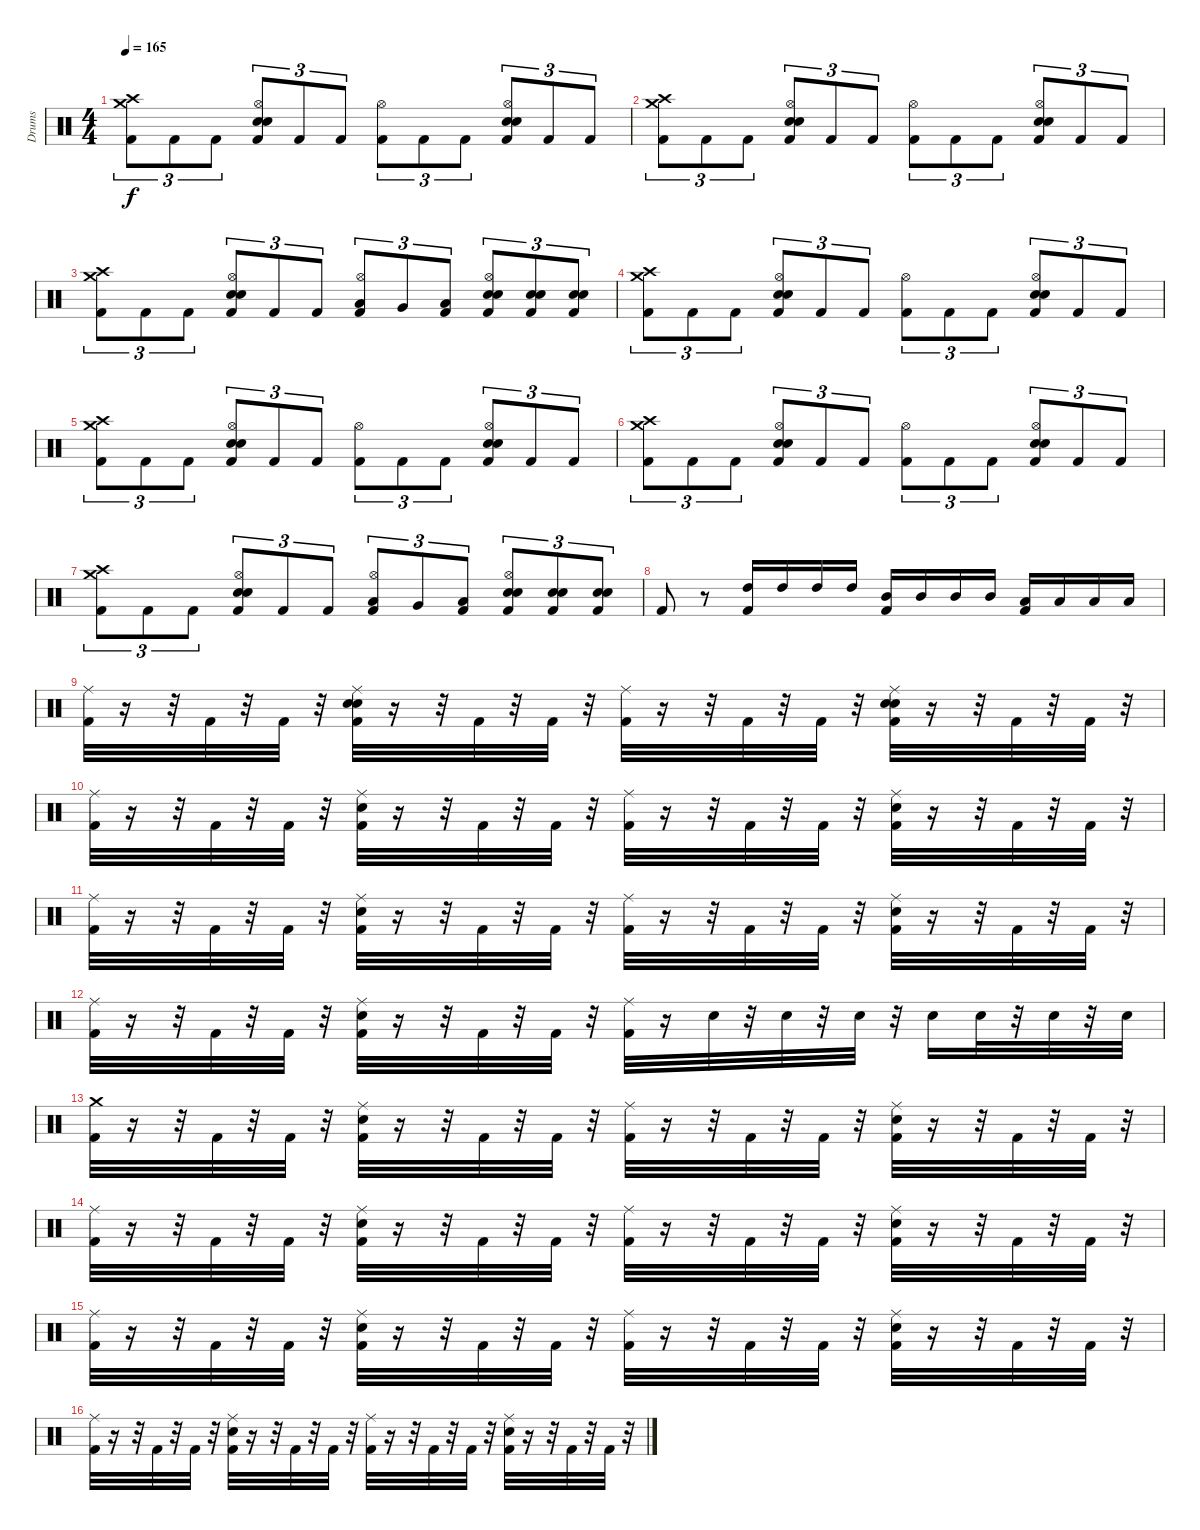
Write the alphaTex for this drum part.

\track ("Drums" "Drums") {instrument percussion}
\staff {score}
\articulation defaults
\ts (4 4)
\tempo 165
\clef neutral
\ks c
("Crash high (hit)" "Crash medium (hit)" "Kick (hit) 2").8{tu (3 2) dy f} "Kick (hit) 2".8{tu (3 2)} "Kick (hit) 2".8{tu (3 2)} ("Hi-Hat (open)" "Electric Snare (hit)" "Snare (hit) 2" "Kick (hit) 2").8{tu (3 2)} "Kick (hit) 2".8{tu (3 2)} "Kick (hit) 2".8{tu (3 2)} ("Hi-Hat (open)" "Kick (hit) 2").8{tu (3 2)} "Kick (hit) 2".8{tu (3 2)} "Kick (hit) 2".8{tu (3 2)} ("Hi-Hat (open)" "Electric Snare (hit)" "Snare (hit) 2" "Kick (hit) 2").8{tu (3 2)} "Kick (hit) 2".8{tu (3 2)} "Kick (hit) 2".8{tu (3 2)} |
("Crash high (hit)" "Crash medium (hit)" "Kick (hit) 2").8{tu (3 2)} "Kick (hit) 2".8{tu (3 2)} "Kick (hit) 2".8{tu (3 2)} ("Hi-Hat (open)" "Electric Snare (hit)" "Snare (hit) 2" "Kick (hit) 2").8{tu (3 2)} "Kick (hit) 2".8{tu (3 2)} "Kick (hit) 2".8{tu (3 2)} ("Hi-Hat (open)" "Kick (hit) 2").8{tu (3 2)} "Kick (hit) 2".8{tu (3 2)} "Kick (hit) 2".8{tu (3 2)} ("Hi-Hat (open)" "Electric Snare (hit)" "Snare (hit) 2" "Kick (hit) 2").8{tu (3 2)} "Kick (hit) 2".8{tu (3 2)} "Kick (hit) 2".8{tu (3 2)} |
("Crash high (hit)" "Crash medium (hit)" "Kick (hit) 2").8{tu (3 2)} "Kick (hit) 2".8{tu (3 2)} "Kick (hit) 2".8{tu (3 2)} ("Hi-Hat (open)" "Electric Snare (hit)" "Snare (hit) 2" "Kick (hit) 2").8{tu (3 2)} "Kick (hit) 2".8{tu (3 2)} "Kick (hit) 2".8{tu (3 2)} ("Hi-Hat (open)" "Low Tom (hit)" "Kick (hit) 2").8{tu (3 2)} "Very Low Tom (hit)".8{tu (3 2)} ("Low Floor Tom (hit)" "Kick (hit) 2").8{tu (3 2)} ("Hi-Hat (open)" "Electric Snare (hit)" "Snare (hit) 2" "Kick (hit) 2").8{tu (3 2)} ("Electric Snare (hit)" "Snare (hit) 2" "Kick (hit) 2").8{tu (3 2)} ("Electric Snare (hit)" "Snare (hit) 2" "Kick (hit) 2").8{tu (3 2)} |
("Crash high (hit)" "Crash medium (hit)" "Kick (hit) 2").8{tu (3 2)} "Kick (hit) 2".8{tu (3 2)} "Kick (hit) 2".8{tu (3 2)} ("Hi-Hat (open)" "Electric Snare (hit)" "Snare (hit) 2" "Kick (hit) 2").8{tu (3 2)} "Kick (hit) 2".8{tu (3 2)} "Kick (hit) 2".8{tu (3 2)} ("Hi-Hat (open)" "Kick (hit) 2").8{tu (3 2)} "Kick (hit) 2".8{tu (3 2)} "Kick (hit) 2".8{tu (3 2)} ("Hi-Hat (open)" "Electric Snare (hit)" "Snare (hit) 2" "Kick (hit) 2").8{tu (3 2)} "Kick (hit) 2".8{tu (3 2)} "Kick (hit) 2".8{tu (3 2)} |
("Crash high (hit)" "Crash medium (hit)" "Kick (hit) 2").8{tu (3 2)} "Kick (hit) 2".8{tu (3 2)} "Kick (hit) 2".8{tu (3 2)} ("Hi-Hat (open)" "Electric Snare (hit)" "Snare (hit) 2" "Kick (hit) 2").8{tu (3 2)} "Kick (hit) 2".8{tu (3 2)} "Kick (hit) 2".8{tu (3 2)} ("Hi-Hat (open)" "Kick (hit) 2").8{tu (3 2)} "Kick (hit) 2".8{tu (3 2)} "Kick (hit) 2".8{tu (3 2)} ("Hi-Hat (open)" "Electric Snare (hit)" "Snare (hit) 2" "Kick (hit) 2").8{tu (3 2)} "Kick (hit) 2".8{tu (3 2)} "Kick (hit) 2".8{tu (3 2)} |
("Crash high (hit)" "Crash medium (hit)" "Kick (hit) 2").8{tu (3 2)} "Kick (hit) 2".8{tu (3 2)} "Kick (hit) 2".8{tu (3 2)} ("Hi-Hat (open)" "Electric Snare (hit)" "Snare (hit) 2" "Kick (hit) 2").8{tu (3 2)} "Kick (hit) 2".8{tu (3 2)} "Kick (hit) 2".8{tu (3 2)} ("Hi-Hat (open)" "Kick (hit) 2").8{tu (3 2)} "Kick (hit) 2".8{tu (3 2)} "Kick (hit) 2".8{tu (3 2)} ("Hi-Hat (open)" "Electric Snare (hit)" "Snare (hit) 2" "Kick (hit) 2").8{tu (3 2)} "Kick (hit) 2".8{tu (3 2)} "Kick (hit) 2".8{tu (3 2)} |
("Crash high (hit)" "Crash medium (hit)" "Kick (hit) 2").8{tu (3 2)} "Kick (hit) 2".8{tu (3 2)} "Kick (hit) 2".8{tu (3 2)} ("Hi-Hat (open)" "Electric Snare (hit)" "Snare (hit) 2" "Kick (hit) 2").8{tu (3 2)} "Kick (hit) 2".8{tu (3 2)} "Kick (hit) 2".8{tu (3 2)} ("Hi-Hat (open)" "Low Tom (hit)" "Kick (hit) 2").8{tu (3 2)} "Very Low Tom (hit)".8{tu (3 2)} ("Low Floor Tom (hit)" "Kick (hit) 2").8{tu (3 2)} ("Hi-Hat (open)" "Electric Snare (hit)" "Snare (hit) 2" "Kick (hit) 2").8{tu (3 2)} ("Electric Snare (hit)" "Snare (hit) 2" "Kick (hit) 2").8{tu (3 2)} ("Electric Snare (hit)" "Snare (hit) 2" "Kick (hit) 2").8{tu (3 2)} |
"Kick (hit) 2".8 r.8 ("High Tom (hit)" "Kick (hit) 2").16 "High Tom (hit)".16 "High Tom (hit)".16 "High Tom (hit)".16 ("Mid Tom (hit)" "Kick (hit) 2").16 "Mid Tom (hit)".16 "Mid Tom (hit)".16 "Mid Tom (hit)".16 ("Low Tom (hit)" "Kick (hit) 2").16 "Low Tom (hit)".16 "Low Tom (hit)".16 "Low Tom (hit)".16 |
("Kick (hit) 2" "Ride (middle)").32 r.16 r.32 "Kick (hit) 2".32 r.32 "Kick (hit) 2".32 r.32 ("Ride (middle)" "Snare (hit) 2" "Electric Snare (hit)" "Kick (hit) 2").32 r.16 r.32 "Kick (hit) 2".32 r.32 "Kick (hit) 2".32 r.32 ("Kick (hit) 2" "Ride (middle)").32 r.16 r.32 "Kick (hit) 2".32 r.32 "Kick (hit) 2".32 r.32 ("Ride (middle)" "Snare (hit) 2" "Electric Snare (hit)" "Kick (hit) 2").32 r.16 r.32 "Kick (hit) 2".32 r.32 "Kick (hit) 2".32 r.32 |
("Ride (middle)" "Kick (hit) 2").32 r.16 r.32 "Kick (hit) 2".32 r.32 "Kick (hit) 2".32 r.32 ("Ride (middle)" "Snare (hit) 2" "Kick (hit) 2").32 r.16 r.32 "Kick (hit) 2".32 r.32 "Kick (hit) 2".32 r.32 ("Ride (middle)" "Kick (hit) 2").32 r.16 r.32 "Kick (hit) 2".32 r.32 "Kick (hit) 2".32 r.32 ("Ride (middle)" "Snare (hit) 2" "Kick (hit) 2").32 r.16 r.32 "Kick (hit) 2".32 r.32 "Kick (hit) 2".32 r.32 |
("Kick (hit) 2" "Ride (middle)").32 r.16 r.32 "Kick (hit) 2".32 r.32 "Kick (hit) 2".32 r.32 ("Ride (middle)" "Snare (hit) 2" "Kick (hit) 2").32 r.16 r.32 "Kick (hit) 2".32 r.32 "Kick (hit) 2".32 r.32 ("Kick (hit) 2" "Ride (middle)").32 r.16 r.32 "Kick (hit) 2".32 r.32 "Kick (hit) 2".32 r.32 ("Snare (hit) 2" "Ride (middle)" "Kick (hit) 2").32 r.16 r.32 "Kick (hit) 2".32 r.32 "Kick (hit) 2".32 r.32 |
("Ride (middle)" "Kick (hit) 2").32 r.16 r.32 "Kick (hit) 2".32 r.32 "Kick (hit) 2".32 r.32 ("Ride (middle)" "Snare (hit) 2" "Kick (hit) 2").32 r.16 r.32 "Kick (hit) 2".32 r.32 "Kick (hit) 2".32 r.32 ("Ride (middle)" "Kick (hit) 2").32 r.16 "Snare (hit) 2".32 r.32 "Snare (hit) 2".32 r.32 "Snare (hit) 2".32 r.32 "Snare (hit) 2".16 "Snare (hit) 2".32 r.32 "Snare (hit) 2".32 r.32 "Snare (hit) 2".32 |
("Crash medium (hit)" "Kick (hit) 2").32 r.16 r.32 "Kick (hit) 2".32 r.32 "Kick (hit) 2".32 r.32 ("Ride (middle)" "Snare (hit) 2" "Kick (hit) 2").32 r.16 r.32 "Kick (hit) 2".32 r.32 "Kick (hit) 2".32 r.32 ("Ride (middle)" "Kick (hit) 2").32 r.16 r.32 "Kick (hit) 2".32 r.32 "Kick (hit) 2".32 r.32 ("Ride (middle)" "Snare (hit) 2" "Kick (hit) 2").32 r.16 r.32 "Kick (hit) 2".32 r.32 "Kick (hit) 2".32 r.32 |
("Ride (middle)" "Kick (hit) 2").32 r.16 r.32 "Kick (hit) 2".32 r.32 "Kick (hit) 2".32 r.32 ("Ride (middle)" "Snare (hit) 2" "Kick (hit) 2").32 r.16 r.32 "Kick (hit) 2".32 r.32 "Kick (hit) 2".32 r.32 ("Ride (middle)" "Kick (hit) 2").32 r.16 r.32 "Kick (hit) 2".32 r.32 "Kick (hit) 2".32 r.32 ("Ride (middle)" "Snare (hit) 2" "Kick (hit) 2").32 r.16 r.32 "Kick (hit) 2".32 r.32 "Kick (hit) 2".32 r.32 |
("Kick (hit) 2" "Ride (middle)").32 r.16 r.32 "Kick (hit) 2".32 r.32 "Kick (hit) 2".32 r.32 ("Ride (middle)" "Snare (hit) 2" "Kick (hit) 2").32 r.16 r.32 "Kick (hit) 2".32 r.32 "Kick (hit) 2".32 r.32 ("Kick (hit) 2" "Ride (middle)").32 r.16 r.32 "Kick (hit) 2".32 r.32 "Kick (hit) 2".32 r.32 ("Snare (hit) 2" "Ride (middle)" "Kick (hit) 2").32 r.16 r.32 "Kick (hit) 2".32 r.32 "Kick (hit) 2".32 r.32 |
("Ride (middle)" "Kick (hit) 2").32 r.16 r.32 "Kick (hit) 2".32 r.32 "Kick (hit) 2".32 r.32 ("Ride (middle)" "Snare (hit) 2" "Kick (hit) 2").32 r.16 r.32 "Kick (hit) 2".32 r.32 "Kick (hit) 2".32 r.32 ("Ride (middle)" "Kick (hit) 2").32 r.16 r.32 "Kick (hit) 2".32 r.32 "Kick (hit) 2".32 r.32 ("Ride (middle)" "Snare (hit) 2" "Kick (hit) 2").32 r.16 r.32 "Kick (hit) 2".32 r.32 "Kick (hit) 2".32 r.32
